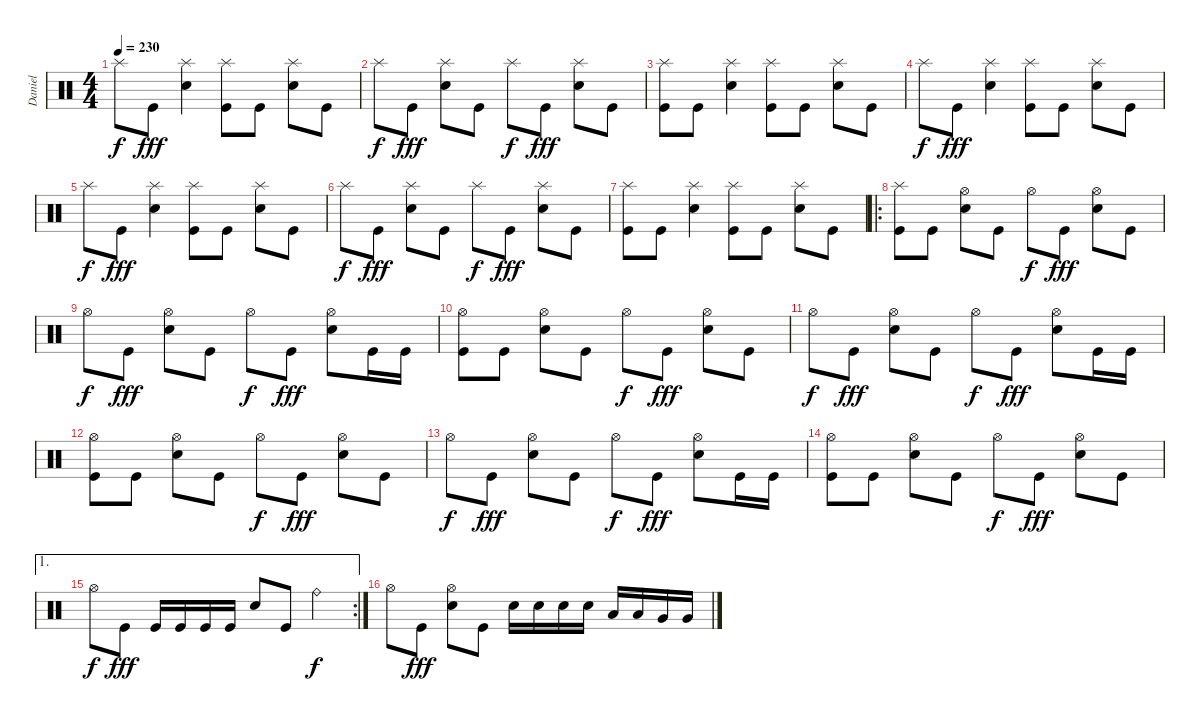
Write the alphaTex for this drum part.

\track ("Daniel" "Daniel") {instrument percussion}
\staff {score}
\articulation defaults
\ts (4 4)
\tempo 230
\clef neutral
\ks c "Splash (hit)".8{dy f} "Kick (hit)".8{dy fff}
("Electric Snare (hit)" "Splash (hit)").4 ("Kick (hit)" "Splash (hit)").8 "Kick (hit)".8 ("Electric Snare (hit)" "Splash (hit)").8 "Kick (hit)".8 |
"Splash (hit)".8{dy f} "Kick (hit)".8{dy fff} ("Electric Snare (hit)" "Splash (hit)").8 "Kick (hit)".8 "Splash (hit)".8{dy f} "Kick (hit)".8{dy fff} ("Electric Snare (hit)" "Splash (hit)").8 "Kick (hit)".8 |
("Kick (hit)" "Splash (hit)").8 "Kick (hit)".8 ("Electric Snare (hit)" "Splash (hit)").4 ("Kick (hit)" "Splash (hit)").8 "Kick (hit)".8 ("Electric Snare (hit)" "Splash (hit)").8 "Kick (hit)".8 |
"Splash (hit)".8{dy f} "Kick (hit)".8{dy fff} ("Electric Snare (hit)" "Splash (hit)").4 ("Kick (hit)" "Splash (hit)").8 "Kick (hit)".8 ("Electric Snare (hit)" "Splash (hit)").8 "Kick (hit)".8 |
"Splash (hit)".8{dy f} "Kick (hit)".8{dy fff} ("Electric Snare (hit)" "Splash (hit)").4 ("Kick (hit)" "Splash (hit)").8 "Kick (hit)".8 ("Electric Snare (hit)" "Splash (hit)").8 "Kick (hit)".8 |
"Splash (hit)".8{dy f} "Kick (hit)".8{dy fff} ("Electric Snare (hit)" "Splash (hit)").8 "Kick (hit)".8 "Splash (hit)".8{dy f} "Kick (hit)".8{dy fff} ("Electric Snare (hit)" "Splash (hit)").8 "Kick (hit)".8 |
("Kick (hit)" "Splash (hit)").8 "Kick (hit)".8 ("Electric Snare (hit)" "Splash (hit)").4 ("Kick (hit)" "Splash (hit)").8 "Kick (hit)".8 ("Electric Snare (hit)" "Splash (hit)").8 "Kick (hit)".8 |
\ro
("Kick (hit)" "Splash (hit)").8 "Kick (hit)".8 ("Electric Snare (hit)" "Hi-Hat (open)").8 "Kick (hit)".8 "Hi-Hat (open)".8{dy f} "Kick (hit)".8{dy fff} ("Electric Snare (hit)" "Hi-Hat (open)").8 "Kick (hit)".8 |
"Hi-Hat (open)".8{dy f} "Kick (hit)".8{dy fff} ("Electric Snare (hit)" "Hi-Hat (open)").8 "Kick (hit)".8 "Hi-Hat (open)".8{dy f} "Kick (hit)".8{dy fff} ("Electric Snare (hit)" "Hi-Hat (open)").8 "Kick (hit)".16 "Kick (hit)".16 |
("Kick (hit)" "Hi-Hat (open)").8 "Kick (hit)".8 ("Electric Snare (hit)" "Hi-Hat (open)").8 "Kick (hit)".8 "Hi-Hat (open)".8{dy f} "Kick (hit)".8{dy fff} ("Electric Snare (hit)" "Hi-Hat (open)").8 "Kick (hit)".8 |
"Hi-Hat (open)".8{dy f} "Kick (hit)".8{dy fff} ("Electric Snare (hit)" "Hi-Hat (open)").8 "Kick (hit)".8 "Hi-Hat (open)".8{dy f} "Kick (hit)".8{dy fff} ("Electric Snare (hit)" "Hi-Hat (open)").8 "Kick (hit)".16 "Kick (hit)".16 |
("Kick (hit)" "Hi-Hat (open)").8 "Kick (hit)".8 ("Electric Snare (hit)" "Hi-Hat (open)").8 "Kick (hit)".8 "Hi-Hat (open)".8{dy f} "Kick (hit)".8{dy fff} ("Electric Snare (hit)" "Hi-Hat (open)").8 "Kick (hit)".8 |
"Hi-Hat (open)".8{dy f} "Kick (hit)".8{dy fff} ("Electric Snare (hit)" "Hi-Hat (open)").8 "Kick (hit)".8 "Hi-Hat (open)".8{dy f} "Kick (hit)".8{dy fff} ("Electric Snare (hit)" "Hi-Hat (open)").8 "Kick (hit)".16 "Kick (hit)".16 |
("Kick (hit)" "Hi-Hat (open)").8 "Kick (hit)".8 ("Electric Snare (hit)" "Hi-Hat (open)").8 "Kick (hit)".8 "Hi-Hat (open)".8{dy f} "Kick (hit)".8{dy fff} ("Electric Snare (hit)" "Hi-Hat (open)").8 "Kick (hit)".8 |
\ae 1
\rc 2 "Hi-Hat (open)".8{dy f} "Kick (hit)".8{dy fff} "Kick (hit)".16 "Kick (hit)".16 "Kick (hit)".16 "Kick (hit)".16 "Electric Snare (hit)".8 "Kick (hit)".8 "Ride (bell)".4{dy f}
|
"Hi-Hat (open)".8 "Kick (hit)".8{dy fff} ("Electric Snare (hit)" "Hi-Hat (open)").8 "Kick (hit)".8 "Electric Snare (hit)".16 "Electric Snare (hit)".16 "Electric Snare (hit)".16 "Electric Snare (hit)".16 "Low Tom (hit)".16 "Low Tom (hit)".16 "Very Low Tom (hit)".16 "Very Low Tom (hit)".16
